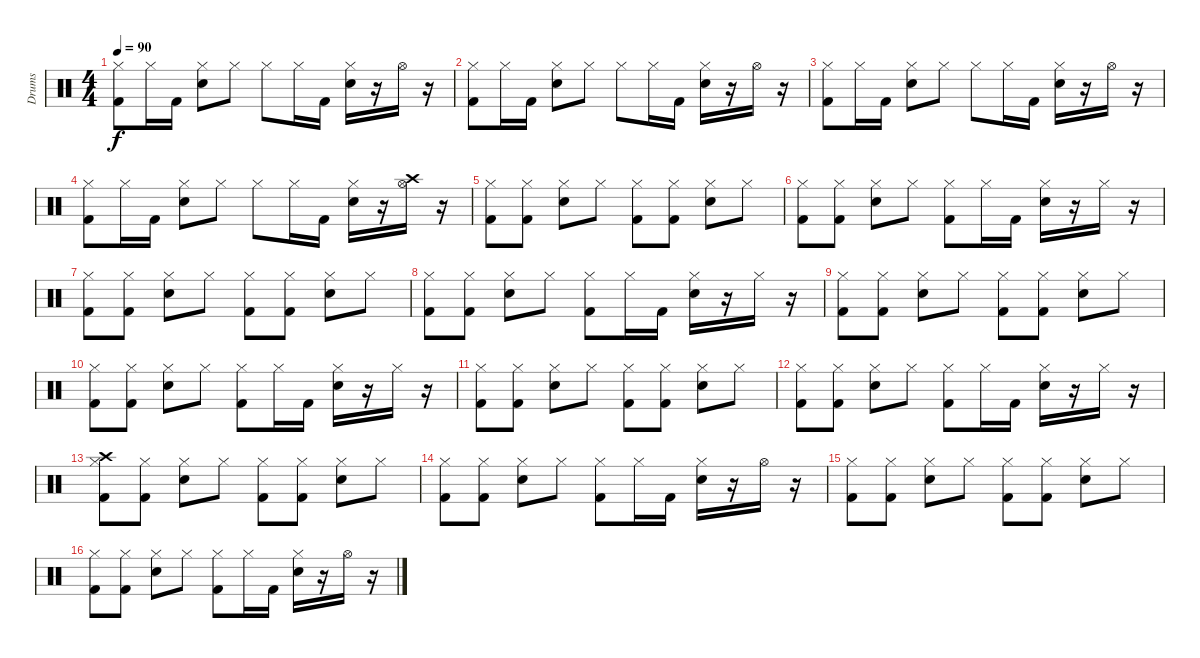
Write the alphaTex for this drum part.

\track ("Drums" "Drums") {instrument percussion}
\staff {score}
\articulation defaults
\ts (4 4)
\tempo 90
\clef neutral
\ks c
("Hi-Hat (closed)" "Kick (hit) 2").8{dy f} "Hi-Hat (closed)".16 "Kick (hit) 2".16 ("Hi-Hat (closed)" "Electric Snare (hit)").8 "Hi-Hat (closed)".8 "Hi-Hat (closed)".8 "Hi-Hat (closed)".16 "Kick (hit) 2".16 ("Hi-Hat (closed)" "Electric Snare (hit)").16 r.16 "Hi-Hat (open)".16 r.16 |
("Hi-Hat (closed)" "Kick (hit) 2").8 "Hi-Hat (closed)".16 "Kick (hit) 2".16 ("Hi-Hat (closed)" "Electric Snare (hit)").8 "Hi-Hat (closed)".8 "Hi-Hat (closed)".8 "Hi-Hat (closed)".16 "Kick (hit) 2".16 ("Hi-Hat (closed)" "Electric Snare (hit)").16 r.16 "Hi-Hat (open)".16 r.16 |
("Hi-Hat (closed)" "Kick (hit) 2").8 "Hi-Hat (closed)".16 "Kick (hit) 2".16 ("Hi-Hat (closed)" "Electric Snare (hit)").8 "Hi-Hat (closed)".8 "Hi-Hat (closed)".8 "Hi-Hat (closed)".16 "Kick (hit) 2".16 ("Hi-Hat (closed)" "Electric Snare (hit)").16 r.16 "Hi-Hat (open)".16 r.16 |
("Hi-Hat (closed)" "Kick (hit) 2").8 "Hi-Hat (closed)".16 "Kick (hit) 2".16 ("Hi-Hat (closed)" "Electric Snare (hit)").8 "Hi-Hat (closed)".8 "Hi-Hat (closed)".8 "Hi-Hat (closed)".16 "Kick (hit) 2".16 ("Hi-Hat (closed)" "Electric Snare (hit)").16 r.16 ("Crash high (hit)" "Hi-Hat (open)").16 r.16 |
("Hi-Hat (closed)" "Kick (hit) 2").8 ("Hi-Hat (closed)" "Kick (hit) 2").8 ("Hi-Hat (closed)" "Electric Snare (hit)").8 "Hi-Hat (closed)".8 ("Hi-Hat (closed)" "Kick (hit) 2").8 ("Hi-Hat (closed)" "Kick (hit) 2").8 ("Hi-Hat (closed)" "Electric Snare (hit)").8 "Hi-Hat (closed)".8 |
("Hi-Hat (closed)" "Kick (hit) 2").8 ("Hi-Hat (closed)" "Kick (hit) 2").8 ("Hi-Hat (closed)" "Electric Snare (hit)").8 "Hi-Hat (closed)".8 ("Hi-Hat (closed)" "Kick (hit) 2").8 "Hi-Hat (closed)".16 "Kick (hit) 2".16 ("Hi-Hat (closed)" "Electric Snare (hit)").16 r.16 "Hi-Hat (closed)".16 r.16 |
("Hi-Hat (closed)" "Kick (hit) 2").8 ("Hi-Hat (closed)" "Kick (hit) 2").8 ("Hi-Hat (closed)" "Electric Snare (hit)").8 "Hi-Hat (closed)".8 ("Hi-Hat (closed)" "Kick (hit) 2").8 ("Hi-Hat (closed)" "Kick (hit) 2").8 ("Hi-Hat (closed)" "Electric Snare (hit)").8 "Hi-Hat (closed)".8 |
("Hi-Hat (closed)" "Kick (hit) 2").8 ("Hi-Hat (closed)" "Kick (hit) 2").8 ("Hi-Hat (closed)" "Electric Snare (hit)").8 "Hi-Hat (closed)".8 ("Hi-Hat (closed)" "Kick (hit) 2").8 "Hi-Hat (closed)".16 "Kick (hit) 2".16 ("Hi-Hat (closed)" "Electric Snare (hit)").16 r.16 "Hi-Hat (closed)".16 r.16 |
("Hi-Hat (closed)" "Kick (hit) 2").8 ("Hi-Hat (closed)" "Kick (hit) 2").8 ("Hi-Hat (closed)" "Electric Snare (hit)").8 "Hi-Hat (closed)".8 ("Hi-Hat (closed)" "Kick (hit) 2").8 ("Hi-Hat (closed)" "Kick (hit) 2").8 ("Hi-Hat (closed)" "Electric Snare (hit)").8 "Hi-Hat (closed)".8 |
("Hi-Hat (closed)" "Kick (hit) 2").8 ("Hi-Hat (closed)" "Kick (hit) 2").8 ("Hi-Hat (closed)" "Electric Snare (hit)").8 "Hi-Hat (closed)".8 ("Hi-Hat (closed)" "Kick (hit) 2").8 "Hi-Hat (closed)".16 "Kick (hit) 2".16 ("Hi-Hat (closed)" "Electric Snare (hit)").16 r.16 "Hi-Hat (closed)".16 r.16 |
("Hi-Hat (closed)" "Kick (hit) 2").8 ("Hi-Hat (closed)" "Kick (hit) 2").8 ("Hi-Hat (closed)" "Electric Snare (hit)").8 "Hi-Hat (closed)".8 ("Hi-Hat (closed)" "Kick (hit) 2").8 ("Hi-Hat (closed)" "Kick (hit) 2").8 ("Hi-Hat (closed)" "Electric Snare (hit)").8 "Hi-Hat (closed)".8 |
("Hi-Hat (closed)" "Kick (hit) 2").8 ("Hi-Hat (closed)" "Kick (hit) 2").8 ("Hi-Hat (closed)" "Electric Snare (hit)").8 "Hi-Hat (closed)".8 ("Hi-Hat (closed)" "Kick (hit) 2").8 "Hi-Hat (closed)".16 "Kick (hit) 2".16 ("Hi-Hat (closed)" "Electric Snare (hit)").16 r.16 "Hi-Hat (closed)".16 r.16 |
("Crash high (hit)" "Hi-Hat (closed)" "Kick (hit) 2").8 ("Hi-Hat (closed)" "Kick (hit) 2").8 ("Hi-Hat (closed)" "Electric Snare (hit)").8 "Hi-Hat (closed)".8 ("Hi-Hat (closed)" "Kick (hit) 2").8 ("Hi-Hat (closed)" "Kick (hit) 2").8 ("Hi-Hat (closed)" "Electric Snare (hit)").8 "Hi-Hat (closed)".8 |
("Hi-Hat (closed)" "Kick (hit) 2").8 ("Hi-Hat (closed)" "Kick (hit) 2").8 ("Hi-Hat (closed)" "Electric Snare (hit)").8 "Hi-Hat (closed)".8 ("Hi-Hat (closed)" "Kick (hit) 2").8 "Hi-Hat (closed)".16 "Kick (hit) 2".16 ("Hi-Hat (closed)" "Electric Snare (hit)").16 r.16 "Hi-Hat (open)".16 r.16 |
("Hi-Hat (closed)" "Kick (hit) 2").8 ("Hi-Hat (closed)" "Kick (hit) 2").8 ("Hi-Hat (closed)" "Electric Snare (hit)").8 "Hi-Hat (closed)".8 ("Hi-Hat (closed)" "Kick (hit) 2").8 ("Hi-Hat (closed)" "Kick (hit) 2").8 ("Hi-Hat (closed)" "Electric Snare (hit)").8 "Hi-Hat (closed)".8 |
("Hi-Hat (closed)" "Kick (hit) 2").8 ("Hi-Hat (closed)" "Kick (hit) 2").8 ("Hi-Hat (closed)" "Electric Snare (hit)").8 "Hi-Hat (closed)".8 ("Hi-Hat (closed)" "Kick (hit) 2").8 "Hi-Hat (closed)".16 "Kick (hit) 2".16 ("Hi-Hat (closed)" "Electric Snare (hit)").16 r.16 "Hi-Hat (open)".16 r.16
